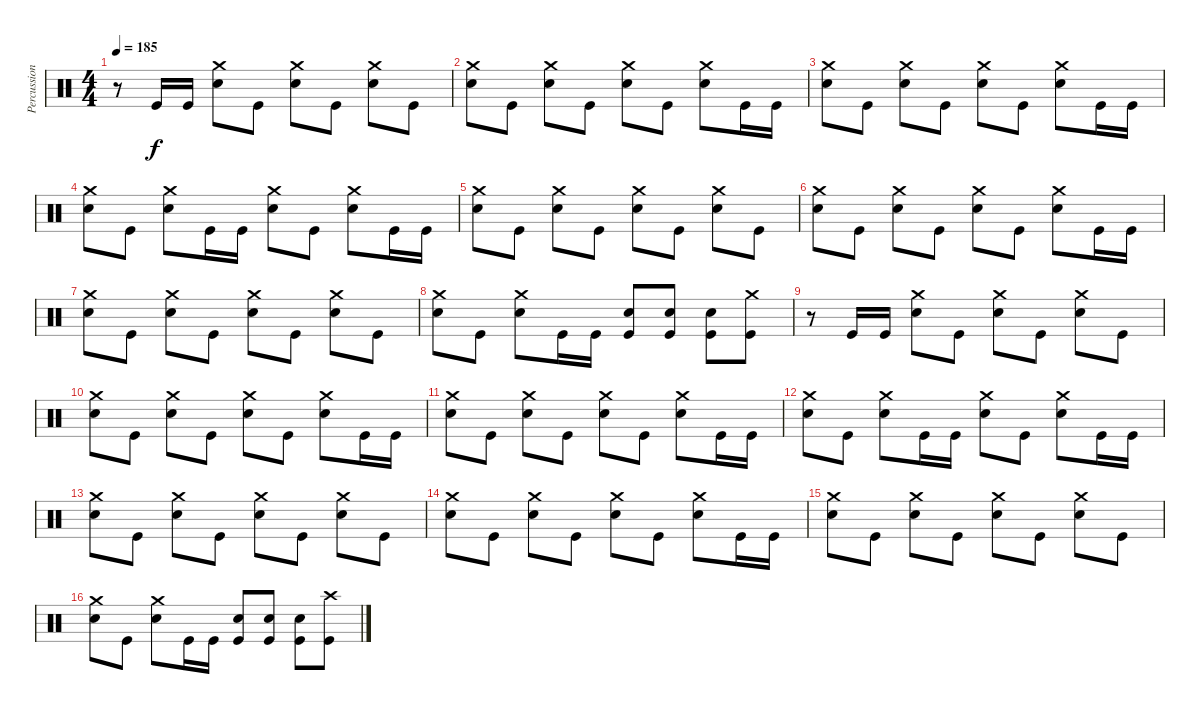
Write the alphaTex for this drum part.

\track ("Percussion" "Percussion") {instrument percussion}
\staff {score}
\articulation defaults
\ts (4 4)
\tempo 185
\clef neutral
\ks c
r.8{dy f} "Kick (hit)".16 "Kick (hit)".16 ("Crash medium (hit)" "Electric Snare (hit)").8 "Kick (hit)".8 ("Crash medium (hit)" "Electric Snare (hit)").8 "Kick (hit)".8 ("Crash medium (hit)" "Electric Snare (hit)").8 "Kick (hit)".8 |
("Crash medium (hit)" "Electric Snare (hit)").8 "Kick (hit)".8 ("Crash medium (hit)" "Electric Snare (hit)").8 "Kick (hit)".8 ("Crash medium (hit)" "Electric Snare (hit)").8 "Kick (hit)".8 ("Crash medium (hit)" "Electric Snare (hit)").8 "Kick (hit)".16 "Kick (hit)".16 |
("Crash medium (hit)" "Electric Snare (hit)").8 "Kick (hit)".8 ("Crash medium (hit)" "Electric Snare (hit)").8 "Kick (hit)".8 ("Crash medium (hit)" "Electric Snare (hit)").8 "Kick (hit)".8 ("Crash medium (hit)" "Electric Snare (hit)").8 "Kick (hit)".16 "Kick (hit)".16 |
("Crash medium (hit)" "Electric Snare (hit)").8 "Kick (hit)".8 ("Crash medium (hit)" "Electric Snare (hit)").8 "Kick (hit)".16 "Kick (hit)".16 ("Crash medium (hit)" "Electric Snare (hit)").8 "Kick (hit)".8 ("Crash medium (hit)" "Electric Snare (hit)").8 "Kick (hit)".16 "Kick (hit)".16 |
("Crash medium (hit)" "Electric Snare (hit)").8 "Kick (hit)".8 ("Crash medium (hit)" "Electric Snare (hit)").8 "Kick (hit)".8 ("Crash medium (hit)" "Electric Snare (hit)").8 "Kick (hit)".8 ("Crash medium (hit)" "Electric Snare (hit)").8 "Kick (hit)".8 |
("Crash medium (hit)" "Electric Snare (hit)").8 "Kick (hit)".8 ("Crash medium (hit)" "Electric Snare (hit)").8 "Kick (hit)".8 ("Crash medium (hit)" "Electric Snare (hit)").8 "Kick (hit)".8 ("Crash medium (hit)" "Electric Snare (hit)").8 "Kick (hit)".16 "Kick (hit)".16 |
("Crash medium (hit)" "Electric Snare (hit)").8 "Kick (hit)".8 ("Crash medium (hit)" "Electric Snare (hit)").8 "Kick (hit)".8 ("Crash medium (hit)" "Electric Snare (hit)").8 "Kick (hit)".8 ("Crash medium (hit)" "Electric Snare (hit)").8 "Kick (hit)".8 |
("Crash medium (hit)" "Electric Snare (hit)").8 "Kick (hit)".8 ("Crash medium (hit)" "Electric Snare (hit)").8 "Kick (hit)".16 "Kick (hit)".16 ("Electric Snare (hit)" "Kick (hit)").8 ("Electric Snare (hit)" "Kick (hit)").8 ("Electric Snare (hit)" "Kick (hit)").8 ("Crash medium (hit)" "Kick (hit)").8 |
r.8 "Kick (hit)".16 "Kick (hit)".16 ("Crash medium (hit)" "Electric Snare (hit)").8 "Kick (hit)".8 ("Crash medium (hit)" "Electric Snare (hit)").8 "Kick (hit)".8 ("Crash medium (hit)" "Electric Snare (hit)").8 "Kick (hit)".8 |
("Crash medium (hit)" "Electric Snare (hit)").8 "Kick (hit)".8 ("Crash medium (hit)" "Electric Snare (hit)").8 "Kick (hit)".8 ("Crash medium (hit)" "Electric Snare (hit)").8 "Kick (hit)".8 ("Crash medium (hit)" "Electric Snare (hit)").8 "Kick (hit)".16 "Kick (hit)".16 |
("Crash medium (hit)" "Electric Snare (hit)").8 "Kick (hit)".8 ("Crash medium (hit)" "Electric Snare (hit)").8 "Kick (hit)".8 ("Crash medium (hit)" "Electric Snare (hit)").8 "Kick (hit)".8 ("Crash medium (hit)" "Electric Snare (hit)").8 "Kick (hit)".16 "Kick (hit)".16 |
("Crash medium (hit)" "Electric Snare (hit)").8 "Kick (hit)".8 ("Crash medium (hit)" "Electric Snare (hit)").8 "Kick (hit)".16 "Kick (hit)".16 ("Crash medium (hit)" "Electric Snare (hit)").8 "Kick (hit)".8 ("Crash medium (hit)" "Electric Snare (hit)").8 "Kick (hit)".16 "Kick (hit)".16 |
("Crash medium (hit)" "Electric Snare (hit)").8 "Kick (hit)".8 ("Crash medium (hit)" "Electric Snare (hit)").8 "Kick (hit)".8 ("Crash medium (hit)" "Electric Snare (hit)").8 "Kick (hit)".8 ("Crash medium (hit)" "Electric Snare (hit)").8 "Kick (hit)".8 |
("Crash medium (hit)" "Electric Snare (hit)").8 "Kick (hit)".8 ("Crash medium (hit)" "Electric Snare (hit)").8 "Kick (hit)".8 ("Crash medium (hit)" "Electric Snare (hit)").8 "Kick (hit)".8 ("Crash medium (hit)" "Electric Snare (hit)").8 "Kick (hit)".16 "Kick (hit)".16 |
("Crash medium (hit)" "Electric Snare (hit)").8 "Kick (hit)".8 ("Crash medium (hit)" "Electric Snare (hit)").8 "Kick (hit)".8 ("Crash medium (hit)" "Electric Snare (hit)").8 "Kick (hit)".8 ("Crash medium (hit)" "Electric Snare (hit)").8 "Kick (hit)".8 |
("Crash medium (hit)" "Electric Snare (hit)").8 "Kick (hit)".8 ("Crash medium (hit)" "Electric Snare (hit)").8 "Kick (hit)".16 "Kick (hit)".16 ("Electric Snare (hit)" "Kick (hit)").8 ("Electric Snare (hit)" "Kick (hit)").8 ("Electric Snare (hit)" "Kick (hit)").8 ("Crash high (hit)" "Kick (hit)").8
